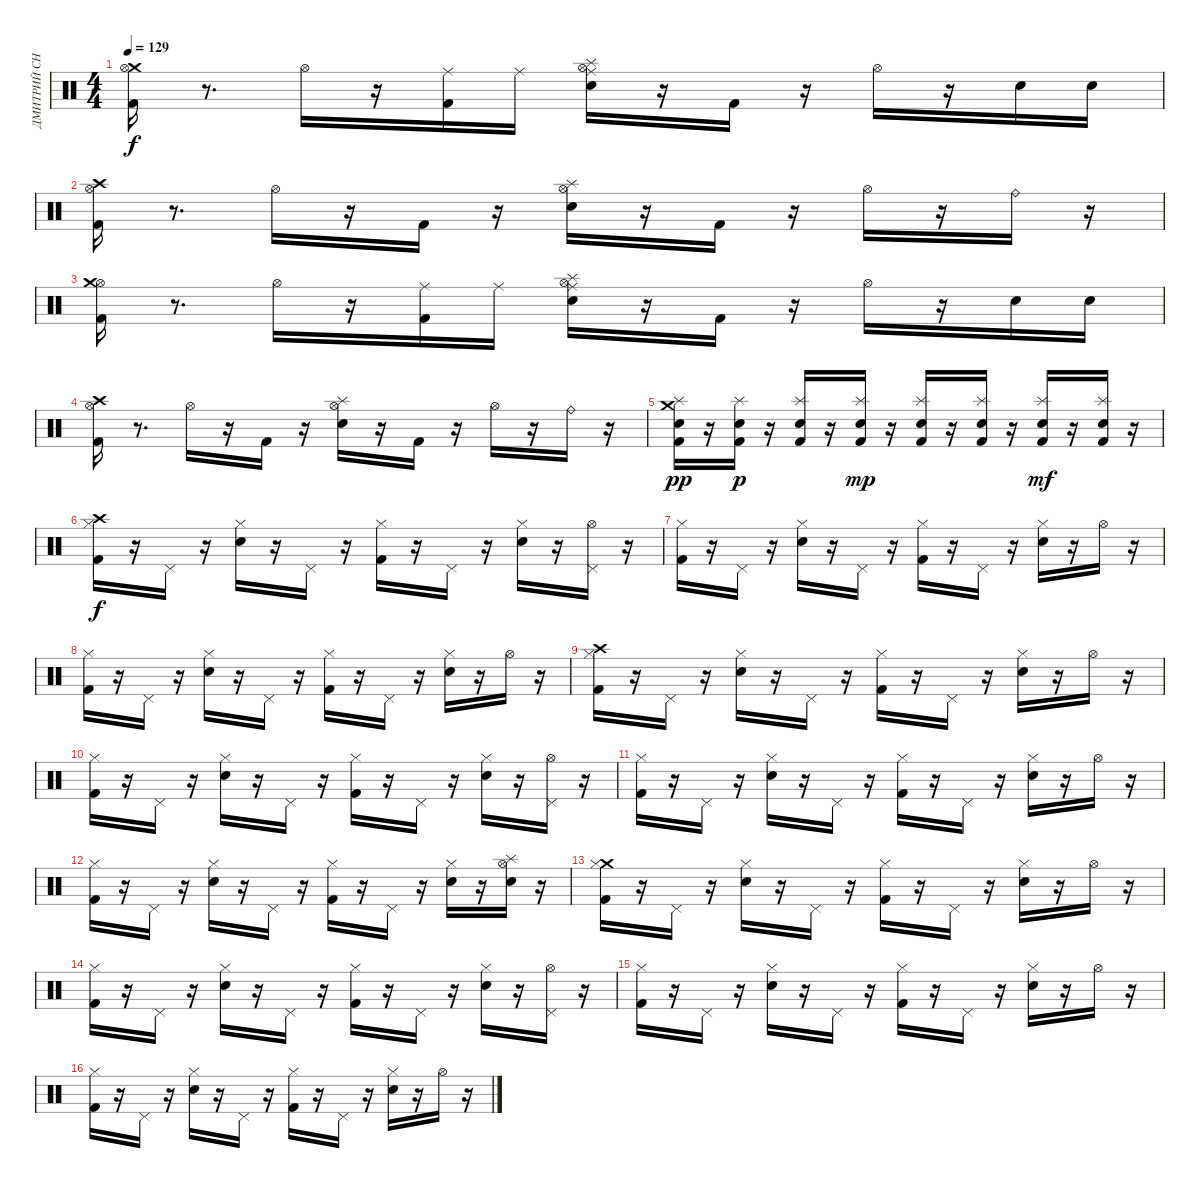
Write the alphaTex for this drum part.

\track ("ДМИТРИЙ СНЭЙК" "ДМИТРИЙ СН") {instrument percussion}
\staff {score}
\articulation defaults
\ts (4 4)
\tempo 129
\clef neutral
\ks c
("Crash medium (hit)" "Hi-Hat (open)" "Kick (hit) 2").16{dy f} r.8{d} "Hi-Hat (open)".16 r.16 ("Ride (middle)" "Kick (hit) 2").16 "Ride (middle)".16 ("Ride (middle)" "Splash (hit)" "Electric Snare (hit)" "Hi-Hat (open)").16 r.16 "Kick (hit) 2".16 r.16 "Hi-Hat (open)".16 r.16 "Electric Snare (hit)".16 "Snare (hit) 2".16 |
("Kick (hit) 2" "Hi-Hat (open)" "Crash high (hit)").16 r.8{d} "Hi-Hat (open)".16 r.16 "Kick (hit) 2".16 r.16 ("Splash (hit)" "Hi-Hat (open)" "Electric Snare (hit)").16 r.16 "Kick (hit) 2".16 r.16 "Hi-Hat (open)".16 r.16 "Ride (bell)".16 r.16 |
("Kick (hit) 2" "Hi-Hat (open)" "Crash medium (hit)").16 r.8{d} "Hi-Hat (open)".16 r.16 ("Ride (middle)" "Kick (hit) 2").16 "Ride (middle)".16 ("Ride (middle)" "Splash (hit)" "Hi-Hat (open)" "Electric Snare (hit)").16 r.16 "Kick (hit) 2".16 r.16 "Hi-Hat (open)".16 r.16 "Electric Snare (hit)".16 "Snare (hit) 2".16 |
("Hi-Hat (open)" "Kick (hit) 2" "Crash high (hit)").16 r.8{d} "Hi-Hat (open)".16 r.16 "Kick (hit) 2".16 r.16 ("Hi-Hat (open)" "Electric Snare (hit)" "Splash (hit)").16 r.16 "Kick (hit) 2".16 r.16 "Hi-Hat (open)".16 r.16 "Ride (bell)".16 r.16 |
("Crash medium (hit)" "Splash (hit)" "Electric Snare (hit)" "Kick (hit) 2").16{dy pp} r.16 ("Splash (hit)" "Electric Snare (hit)" "Kick (hit) 2").16{dy p} r.16 ("Splash (hit)" "Electric Snare (hit)" "Kick (hit) 2").16 r.16 ("Splash (hit)" "Electric Snare (hit)" "Kick (hit) 2").16{dy mp} r.16 ("Splash (hit)" "Electric Snare (hit)" "Kick (hit) 2").16 r.16 ("Splash (hit)" "Electric Snare (hit)" "Kick (hit) 2").16 r.16 ("Splash (hit)" "Electric Snare (hit)" "Kick (hit) 2").16{dy mf} r.16 ("Splash (hit)" "Electric Snare (hit)" "Kick (hit) 2").16 r.16 |
("Crash high (hit)" "Hi-Hat (closed)" "Kick (hit) 2").16{dy f} r.16 "Pedal Hi-Hat (hit)".16 r.16 ("Hi-Hat (closed)" "Electric Snare (hit)").16 r.16 "Pedal Hi-Hat (hit)".16 r.16 ("Hi-Hat (closed)" "Kick (hit) 2").16 r.16 "Pedal Hi-Hat (hit)".16 r.16 ("Hi-Hat (closed)" "Electric Snare (hit)").16 r.16 ("Pedal Hi-Hat (hit)" "Hi-Hat (open)").16 r.16 |
("Hi-Hat (closed)" "Kick (hit) 2").16 r.16 "Pedal Hi-Hat (hit)".16 r.16 ("Hi-Hat (closed)" "Electric Snare (hit)").16 r.16 "Pedal Hi-Hat (hit)".16 r.16 ("Hi-Hat (closed)" "Kick (hit) 2").16 r.16 "Pedal Hi-Hat (hit)".16 r.16 ("Hi-Hat (closed)" "Electric Snare (hit)").16 r.16 "Hi-Hat (open)".16 r.16 |
("Hi-Hat (closed)" "Kick (hit) 2").16 r.16 "Pedal Hi-Hat (hit)".16 r.16 ("Hi-Hat (closed)" "Electric Snare (hit)").16 r.16 "Pedal Hi-Hat (hit)".16 r.16 ("Hi-Hat (closed)" "Kick (hit) 2").16 r.16 "Pedal Hi-Hat (hit)".16 r.16 ("Hi-Hat (closed)" "Electric Snare (hit)").16 r.16 "Hi-Hat (open)".16 r.16 |
("Crash high (hit)" "Hi-Hat (closed)" "Kick (hit) 2").16 r.16 "Pedal Hi-Hat (hit)".16 r.16 ("Hi-Hat (closed)" "Electric Snare (hit)").16 r.16 "Pedal Hi-Hat (hit)".16 r.16 ("Hi-Hat (closed)" "Kick (hit) 2").16 r.16 "Pedal Hi-Hat (hit)".16 r.16 ("Hi-Hat (closed)" "Electric Snare (hit)").16 r.16 "Hi-Hat (open)".16 r.16 |
("Hi-Hat (closed)" "Kick (hit) 2").16 r.16 "Pedal Hi-Hat (hit)".16 r.16 ("Hi-Hat (closed)" "Electric Snare (hit)").16 r.16 "Pedal Hi-Hat (hit)".16 r.16 ("Hi-Hat (closed)" "Kick (hit) 2").16 r.16 "Pedal Hi-Hat (hit)".16 r.16 ("Hi-Hat (closed)" "Electric Snare (hit)").16 r.16 ("Pedal Hi-Hat (hit)" "Hi-Hat (open)").16 r.16 |
("Hi-Hat (closed)" "Kick (hit) 2").16 r.16 "Pedal Hi-Hat (hit)".16 r.16 ("Hi-Hat (closed)" "Electric Snare (hit)").16 r.16 "Pedal Hi-Hat (hit)".16 r.16 ("Hi-Hat (closed)" "Kick (hit) 2").16 r.16 "Pedal Hi-Hat (hit)".16 r.16 ("Hi-Hat (closed)" "Electric Snare (hit)").16 r.16 "Hi-Hat (open)".16 r.16 |
("Hi-Hat (closed)" "Kick (hit) 2").16 r.16 "Pedal Hi-Hat (hit)".16 r.16 ("Hi-Hat (closed)" "Electric Snare (hit)").16 r.16 "Pedal Hi-Hat (hit)".16 r.16 ("Hi-Hat (closed)" "Kick (hit) 2").16 r.16 "Pedal Hi-Hat (hit)".16 r.16 ("Hi-Hat (closed)" "Electric Snare (hit)").16 r.16 ("Splash (hit)" "Electric Snare (hit)" "Hi-Hat (open)").16 r.16 |
("Crash medium (hit)" "Hi-Hat (closed)" "Kick (hit) 2").16 r.16 "Pedal Hi-Hat (hit)".16 r.16 ("Hi-Hat (closed)" "Electric Snare (hit)").16 r.16 "Pedal Hi-Hat (hit)".16 r.16 ("Hi-Hat (closed)" "Kick (hit) 2").16 r.16 "Pedal Hi-Hat (hit)".16 r.16 ("Hi-Hat (closed)" "Electric Snare (hit)").16 r.16 "Hi-Hat (open)".16 r.16 |
("Hi-Hat (closed)" "Kick (hit) 2").16 r.16 "Pedal Hi-Hat (hit)".16 r.16 ("Hi-Hat (closed)" "Electric Snare (hit)").16 r.16 "Pedal Hi-Hat (hit)".16 r.16 ("Hi-Hat (closed)" "Kick (hit) 2").16 r.16 "Pedal Hi-Hat (hit)".16 r.16 ("Hi-Hat (closed)" "Electric Snare (hit)").16 r.16 ("Pedal Hi-Hat (hit)" "Hi-Hat (open)").16 r.16 |
("Hi-Hat (closed)" "Kick (hit) 2").16 r.16 "Pedal Hi-Hat (hit)".16 r.16 ("Hi-Hat (closed)" "Electric Snare (hit)").16 r.16 "Pedal Hi-Hat (hit)".16 r.16 ("Hi-Hat (closed)" "Kick (hit) 2").16 r.16 "Pedal Hi-Hat (hit)".16 r.16 ("Hi-Hat (closed)" "Electric Snare (hit)").16 r.16 "Hi-Hat (open)".16 r.16 |
("Hi-Hat (closed)" "Kick (hit) 2").16 r.16 "Pedal Hi-Hat (hit)".16 r.16 ("Hi-Hat (closed)" "Electric Snare (hit)").16 r.16 "Pedal Hi-Hat (hit)".16 r.16 ("Hi-Hat (closed)" "Kick (hit) 2").16 r.16 "Pedal Hi-Hat (hit)".16 r.16 ("Hi-Hat (closed)" "Electric Snare (hit)").16 r.16 "Hi-Hat (open)".16 r.16
